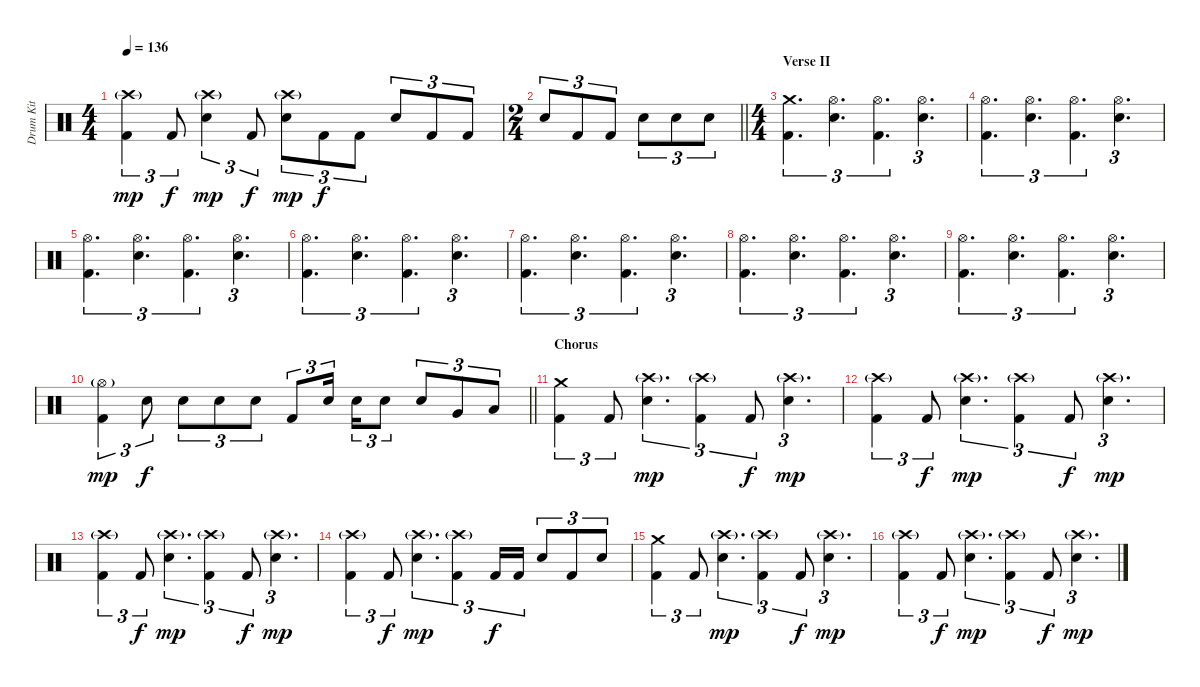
\track ("Drum Kit" "Drum Kit") {instrument percussion}
\staff {score}
\articulation defaults
\ts (4 4)
\tempo 136
\clef neutral
\ks c
("Crash high (hit)"{g} "Kick (hit) 2").4{tu (3 2) dy mp} "Kick (hit) 2".8{tu (3 2) dy f} ("Crash high (hit)"{g} "Electric Snare (hit)").4{tu (3 2) dy mp} "Kick (hit) 2".8{tu (3 2) dy f} ("Crash high (hit)"{g} "Electric Snare (hit)").8{tu (3 2) dy mp} "Kick (hit) 2".8{tu (3 2) dy f} "Kick (hit) 2".8{tu (3 2)} "Electric Snare (hit)".8{tu (3 2)} "Kick (hit) 2".8{tu (3 2)} "Kick (hit) 2".8{tu (3 2)} |
\ts (2 4)
\barLineRight lightlight "Electric Snare (hit)".8{tu (3 2)} "Kick (hit) 2".8{tu (3 2)} "Kick (hit) 2".8{tu (3 2)} "Electric Snare (hit)".8{tu (3 2)} "Electric Snare (hit)".8{tu (3 2)} "Electric Snare (hit)".8{tu (3 2)}
|
\ts (4 4)
\section ("" "Verse II")
("Crash medium (hit)" "Kick (hit) 2").4{d tu (3 2)} ("Hi-Hat (open)" "Electric Snare (hit)").4{d tu (3 2)} ("Hi-Hat (open)" "Kick (hit) 2").4{d tu (3 2)} ("Hi-Hat (open)" "Electric Snare (hit)").4{d tu (3 2)} |
("Hi-Hat (open)" "Kick (hit) 2").4{d tu (3 2)} ("Hi-Hat (open)" "Electric Snare (hit)").4{d tu (3 2)} ("Hi-Hat (open)" "Kick (hit) 2").4{d tu (3 2)} ("Hi-Hat (open)" "Electric Snare (hit)").4{d tu (3 2)} |
("Hi-Hat (open)" "Kick (hit) 2").4{d tu (3 2)} ("Hi-Hat (open)" "Electric Snare (hit)").4{d tu (3 2)} ("Hi-Hat (open)" "Kick (hit) 2").4{d tu (3 2)} ("Hi-Hat (open)" "Electric Snare (hit)").4{d tu (3 2)} |
("Hi-Hat (open)" "Kick (hit) 2").4{d tu (3 2)} ("Hi-Hat (open)" "Electric Snare (hit)").4{d tu (3 2)} ("Hi-Hat (open)" "Kick (hit) 2").4{d tu (3 2)} ("Hi-Hat (open)" "Electric Snare (hit)").4{d tu (3 2)} |
("Hi-Hat (open)" "Kick (hit) 2").4{d tu (3 2)} ("Hi-Hat (open)" "Electric Snare (hit)").4{d tu (3 2)} ("Hi-Hat (open)" "Kick (hit) 2").4{d tu (3 2)} ("Hi-Hat (open)" "Electric Snare (hit)").4{d tu (3 2)} |
("Hi-Hat (open)" "Kick (hit) 2").4{d tu (3 2)} ("Hi-Hat (open)" "Electric Snare (hit)").4{d tu (3 2)} ("Hi-Hat (open)" "Kick (hit) 2").4{d tu (3 2)} ("Hi-Hat (open)" "Electric Snare (hit)").4{d tu (3 2)} |
("Hi-Hat (open)" "Kick (hit) 2").4{d tu (3 2)} ("Hi-Hat (open)" "Electric Snare (hit)").4{d tu (3 2)} ("Hi-Hat (open)" "Kick (hit) 2").4{d tu (3 2)} ("Hi-Hat (open)" "Electric Snare (hit)").4{d tu (3 2)} |
\barLineRight lightlight
("Hi-Hat (open)"{g} "Kick (hit) 2").4{tu (3 2) dy mp} "Electric Snare (hit)".8{tu (3 2) dy f} "Electric Snare (hit)".8{tu (3 2)} "Electric Snare (hit)".8{tu (3 2)} "Electric Snare (hit)".8{tu (3 2)} "Kick (hit) 2".8{tu (3 2)} "Electric Snare (hit)".16{tu (3 2) beam splitsecondary} "Electric Snare (hit)".16{tu (3 2)} "Electric Snare (hit)".8{tu (3 2)} "Electric Snare (hit)".8{tu (3 2)} "Very Low Tom (hit)".8{tu (3 2)} "Low Floor Tom (hit)".8{tu (3 2)} |
\section ("" "Chorus")
("Crash medium (hit)" "Kick (hit) 2").4{tu (3 2)} "Kick (hit) 2".8{tu (3 2)} ("Crash high (hit)"{g} "Electric Snare (hit)").4{d tu (3 2) dy mp} ("Crash high (hit)"{g} "Kick (hit) 2").4{tu (3 2)} "Kick (hit) 2".8{tu (3 2) dy f} ("Crash high (hit)"{g} "Electric Snare (hit)").4{d tu (3 2) dy mp} |
("Crash high (hit)"{g} "Kick (hit) 2").4{tu (3 2)} "Kick (hit) 2".8{tu (3 2) dy f} ("Crash high (hit)"{g} "Electric Snare (hit)").4{d tu (3 2) dy mp} ("Crash high (hit)"{g} "Kick (hit) 2").4{tu (3 2)} "Kick (hit) 2".8{tu (3 2) dy f} ("Crash high (hit)"{g} "Electric Snare (hit)").4{d tu (3 2) dy mp} |
("Crash high (hit)"{g} "Kick (hit) 2").4{tu (3 2)} "Kick (hit) 2".8{tu (3 2) dy f} ("Crash high (hit)"{g} "Electric Snare (hit)").4{d tu (3 2) dy mp} ("Crash high (hit)"{g} "Kick (hit) 2").4{tu (3 2)} "Kick (hit) 2".8{tu (3 2) dy f} ("Crash high (hit)"{g} "Electric Snare (hit)").4{d tu (3 2) dy mp} |
("Crash high (hit)"{g} "Kick (hit) 2").4{tu (3 2)} "Kick (hit) 2".8{tu (3 2) dy f} ("Crash high (hit)"{g} "Electric Snare (hit)").4{d tu (3 2) dy mp} ("Crash high (hit)"{g} "Kick (hit) 2").4{tu (3 2)} "Kick (hit) 2".16{tu (3 2) dy f} "Kick (hit) 2".16{tu (3 2)} "Electric Snare (hit)".8{tu (3 2)} "Kick (hit) 2".8{tu (3 2)} "Electric Snare (hit)".8{tu (3 2)} |
("Crash medium (hit)" "Kick (hit) 2").4{tu (3 2)} "Kick (hit) 2".8{tu (3 2)} ("Crash high (hit)"{g} "Electric Snare (hit)").4{d tu (3 2) dy mp} ("Crash high (hit)"{g} "Kick (hit) 2").4{tu (3 2)} "Kick (hit) 2".8{tu (3 2) dy f} ("Crash high (hit)"{g} "Electric Snare (hit)").4{d tu (3 2) dy mp} |
("Crash high (hit)"{g} "Kick (hit) 2").4{tu (3 2)} "Kick (hit) 2".8{tu (3 2) dy f} ("Crash high (hit)"{g} "Electric Snare (hit)").4{d tu (3 2) dy mp} ("Crash high (hit)"{g} "Kick (hit) 2").4{tu (3 2)} "Kick (hit) 2".8{tu (3 2) dy f} ("Crash high (hit)"{g} "Electric Snare (hit)").4{d tu (3 2) dy mp}
